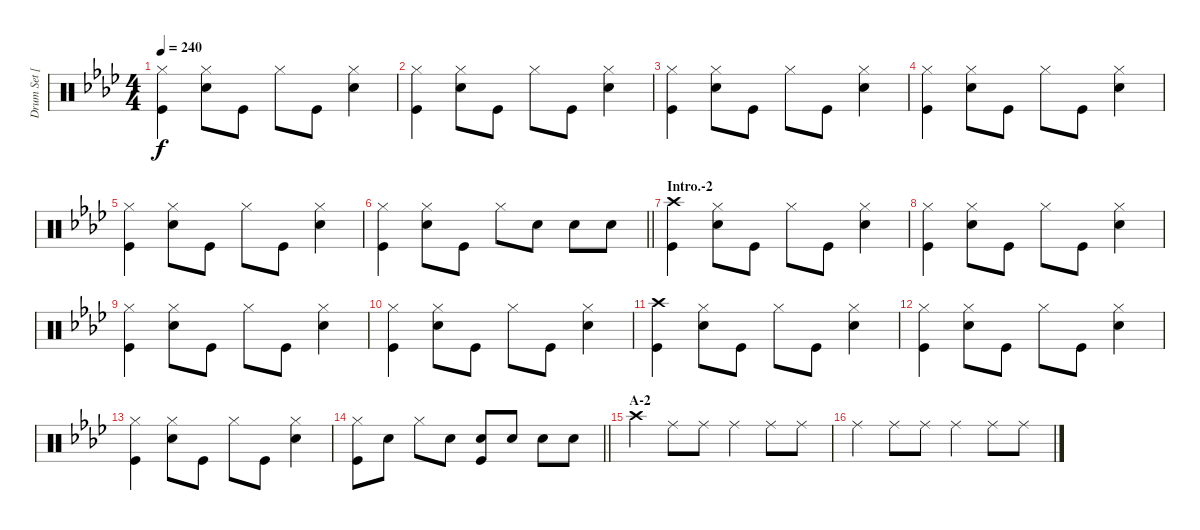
\track ("Drum Set [Ritsu]" "Drum Set [") {instrument percussion}
\staff {score}
\articulation defaults
\ts (4 4)
\tempo 240
\clef neutral
\ks ab
("Hi-Hat (closed)" "Kick (hit)").4{dy f} ("Hi-Hat (closed)" "Snare (hit) 2").8 "Kick (hit)".8 "Hi-Hat (closed)".8 "Kick (hit)".8 ("Hi-Hat (closed)" "Snare (hit) 2").4 |
("Hi-Hat (closed)" "Kick (hit)").4 ("Hi-Hat (closed)" "Snare (hit) 2").8 "Kick (hit)".8 "Hi-Hat (closed)".8 "Kick (hit)".8 ("Hi-Hat (closed)" "Snare (hit) 2").4 |
("Hi-Hat (closed)" "Kick (hit)").4 ("Hi-Hat (closed)" "Snare (hit) 2").8 "Kick (hit)".8 "Hi-Hat (closed)".8 "Kick (hit)".8 ("Hi-Hat (closed)" "Snare (hit) 2").4 |
("Hi-Hat (closed)" "Kick (hit)").4 ("Hi-Hat (closed)" "Snare (hit) 2").8 "Kick (hit)".8 "Hi-Hat (closed)".8 "Kick (hit)".8 ("Hi-Hat (closed)" "Snare (hit) 2").4 |
("Hi-Hat (closed)" "Kick (hit)").4 ("Hi-Hat (closed)" "Snare (hit) 2").8 "Kick (hit)".8 "Hi-Hat (closed)".8 "Kick (hit)".8 ("Hi-Hat (closed)" "Snare (hit) 2").4 |
\barLineRight lightlight
("Hi-Hat (closed)" "Kick (hit)").4 ("Hi-Hat (closed)" "Snare (hit) 2").8 "Kick (hit)".8 "Hi-Hat (closed)".8 "Snare (hit) 2".8 "Snare (hit) 2".8 "Snare (hit) 2".8 |
\section ("" "Intro.-2")
("Crash high (hit)" "Kick (hit)").4 ("Hi-Hat (closed)" "Snare (hit) 2").8 "Kick (hit)".8 "Hi-Hat (closed)".8 "Kick (hit)".8 ("Hi-Hat (closed)" "Snare (hit) 2").4 |
("Hi-Hat (closed)" "Kick (hit)").4 ("Hi-Hat (closed)" "Snare (hit) 2").8 "Kick (hit)".8 "Hi-Hat (closed)".8 "Kick (hit)".8 ("Hi-Hat (closed)" "Snare (hit) 2").4 |
("Hi-Hat (closed)" "Kick (hit)").4 ("Hi-Hat (closed)" "Snare (hit) 2").8 "Kick (hit)".8 "Hi-Hat (closed)".8 "Kick (hit)".8 ("Hi-Hat (closed)" "Snare (hit) 2").4 |
("Hi-Hat (closed)" "Kick (hit)").4 ("Hi-Hat (closed)" "Snare (hit) 2").8 "Kick (hit)".8 "Hi-Hat (closed)".8 "Kick (hit)".8 ("Hi-Hat (closed)" "Snare (hit) 2").4 |
("Crash high (hit)" "Kick (hit)").4 ("Hi-Hat (closed)" "Snare (hit) 2").8 "Kick (hit)".8 "Hi-Hat (closed)".8 "Kick (hit)".8 ("Hi-Hat (closed)" "Snare (hit) 2").4 |
("Hi-Hat (closed)" "Kick (hit)").4 ("Hi-Hat (closed)" "Snare (hit) 2").8 "Kick (hit)".8 "Hi-Hat (closed)".8 "Kick (hit)".8 ("Hi-Hat (closed)" "Snare (hit) 2").4 |
("Hi-Hat (closed)" "Kick (hit)").4 ("Hi-Hat (closed)" "Snare (hit) 2").8 "Kick (hit)".8 "Hi-Hat (closed)".8 "Kick (hit)".8 ("Hi-Hat (closed)" "Snare (hit) 2").4 |
\barLineRight lightlight
("Hi-Hat (closed)" "Kick (hit)").8 "Snare (hit) 2".8 "Hi-Hat (closed)".8 "Snare (hit) 2".8 ("Snare (hit) 2" "Kick (hit)").8 "Snare (hit) 2".8 "Snare (hit) 2".8 "Snare (hit) 2".8 |
\section ("" "A-2")
"Crash high (hit)".4 "Ride (middle)".8 "Ride (middle)".8 "Ride (middle)".4 "Ride (middle)".8 "Ride (middle)".8 |
"Ride (middle)".4 "Ride (middle)".8 "Ride (middle)".8 "Ride (middle)".4 "Ride (middle)".8 "Ride (middle)".8
